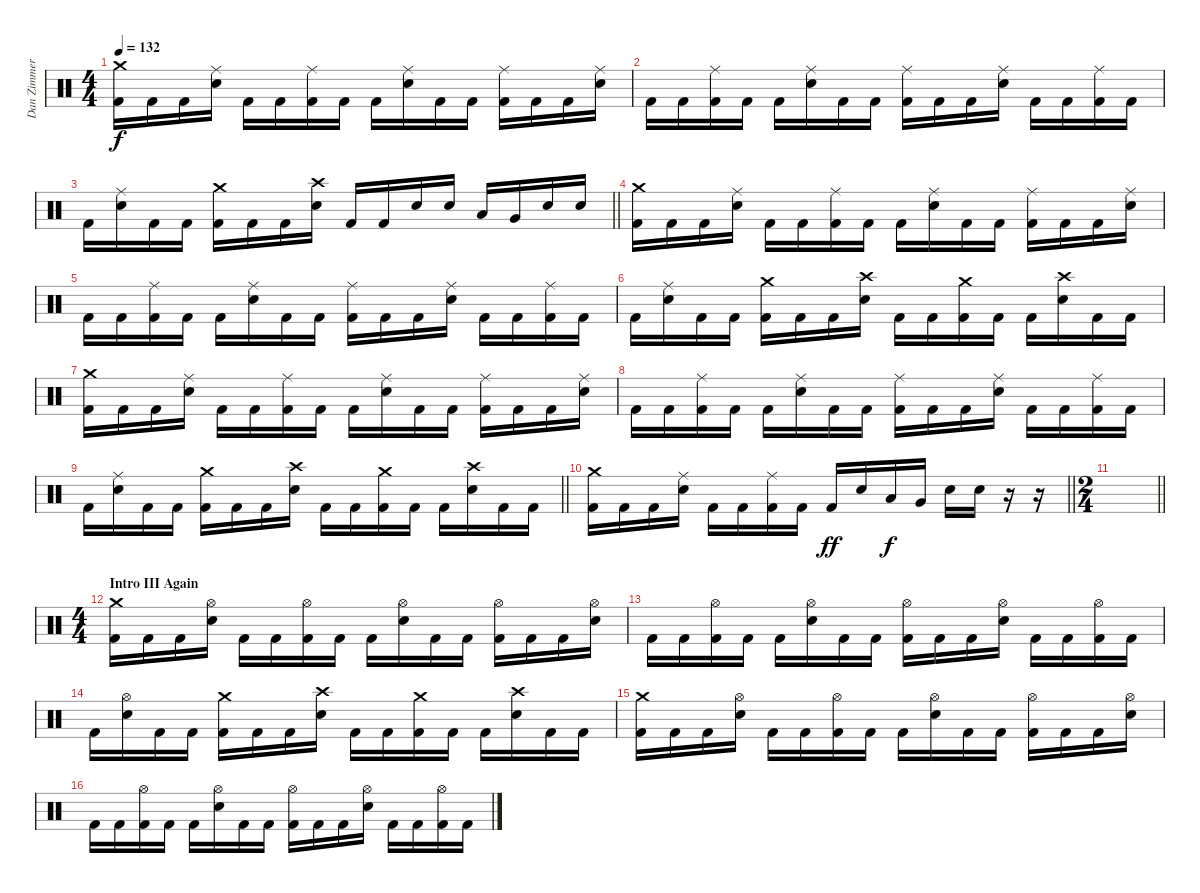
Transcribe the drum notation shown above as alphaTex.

\track ("Dan Zimmermann" "Dan Zimmer") {instrument percussion}
\staff {score}
\articulation defaults
\ts (4 4)
\tempo 132
\clef neutral
\ks c
("Crash medium (hit)" "Kick (hit) 2").16{dy f} "Kick (hit) 2".16 "Kick (hit) 2".16 ("Ride (middle)" "Electric Snare (hit)").16 "Kick (hit) 2".16 "Kick (hit) 2".16 ("Ride (middle)" "Kick (hit) 2").16 "Kick (hit) 2".16 "Kick (hit) 2".16 ("Ride (middle)" "Electric Snare (hit)").16 "Kick (hit) 2".16 "Kick (hit) 2".16 ("Ride (middle)" "Kick (hit) 2").16 "Kick (hit) 2".16 "Kick (hit) 2".16 ("Ride (middle)" "Electric Snare (hit)").16 |
"Kick (hit) 2".16 "Kick (hit) 2".16 ("Ride (middle)" "Kick (hit) 2").16 "Kick (hit) 2".16 "Kick (hit) 2".16 ("Ride (middle)" "Electric Snare (hit)").16 "Kick (hit) 2".16 "Kick (hit) 2".16 ("Ride (middle)" "Kick (hit) 2").16 "Kick (hit) 2".16 "Kick (hit) 2".16 ("Ride (middle)" "Electric Snare (hit)").16 "Kick (hit) 2".16 "Kick (hit) 2".16 ("Ride (middle)" "Kick (hit) 2").16 "Kick (hit) 2".16 |
\barLineRight lightlight "Kick (hit) 2".16
("Ride (middle)" "Electric Snare (hit)").16 "Kick (hit) 2".16 "Kick (hit) 2".16 ("Crash medium (hit)" "Kick (hit) 2").16 "Kick (hit) 2".16 "Kick (hit) 2".16 ("Crash high (hit)" "Electric Snare (hit)").16 "Kick (hit) 2".16 "Kick (hit) 2".16 "Electric Snare (hit)".16 "Electric Snare (hit)".16 "Low Tom (hit)".16 "Very Low Tom (hit)".16 "Electric Snare (hit)".16 "Electric Snare (hit)".16 |
("Crash medium (hit)" "Kick (hit) 2").16 "Kick (hit) 2".16 "Kick (hit) 2".16 ("Ride (middle)" "Electric Snare (hit)").16 "Kick (hit) 2".16 "Kick (hit) 2".16 ("Ride (middle)" "Kick (hit) 2").16 "Kick (hit) 2".16 "Kick (hit) 2".16 ("Ride (middle)" "Electric Snare (hit)").16 "Kick (hit) 2".16 "Kick (hit) 2".16 ("Ride (middle)" "Kick (hit) 2").16 "Kick (hit) 2".16 "Kick (hit) 2".16 ("Ride (middle)" "Electric Snare (hit)").16 |
"Kick (hit) 2".16 "Kick (hit) 2".16 ("Ride (middle)" "Kick (hit) 2").16 "Kick (hit) 2".16 "Kick (hit) 2".16 ("Ride (middle)" "Electric Snare (hit)").16 "Kick (hit) 2".16 "Kick (hit) 2".16 ("Ride (middle)" "Kick (hit) 2").16 "Kick (hit) 2".16 "Kick (hit) 2".16 ("Ride (middle)" "Electric Snare (hit)").16 "Kick (hit) 2".16 "Kick (hit) 2".16 ("Ride (middle)" "Kick (hit) 2").16 "Kick (hit) 2".16 |
"Kick (hit) 2".16 ("Ride (middle)" "Electric Snare (hit)").16 "Kick (hit) 2".16 "Kick (hit) 2".16 ("Crash medium (hit)" "Kick (hit) 2").16 "Kick (hit) 2".16 "Kick (hit) 2".16 ("Crash high (hit)" "Electric Snare (hit)").16 "Kick (hit) 2".16 "Kick (hit) 2".16 ("Crash medium (hit)" "Kick (hit) 2").16 "Kick (hit) 2".16 "Kick (hit) 2".16 ("Crash high (hit)" "Electric Snare (hit)").16 "Kick (hit) 2".16 "Kick (hit) 2".16 |
("Crash medium (hit)" "Kick (hit) 2").16 "Kick (hit) 2".16 "Kick (hit) 2".16 ("Ride (middle)" "Electric Snare (hit)").16 "Kick (hit) 2".16 "Kick (hit) 2".16 ("Ride (middle)" "Kick (hit) 2").16 "Kick (hit) 2".16 "Kick (hit) 2".16 ("Ride (middle)" "Electric Snare (hit)").16 "Kick (hit) 2".16 "Kick (hit) 2".16 ("Ride (middle)" "Kick (hit) 2").16 "Kick (hit) 2".16 "Kick (hit) 2".16 ("Ride (middle)" "Electric Snare (hit)").16 |
"Kick (hit) 2".16 "Kick (hit) 2".16 ("Ride (middle)" "Kick (hit) 2").16 "Kick (hit) 2".16 "Kick (hit) 2".16 ("Ride (middle)" "Electric Snare (hit)").16 "Kick (hit) 2".16 "Kick (hit) 2".16 ("Ride (middle)" "Kick (hit) 2").16 "Kick (hit) 2".16 "Kick (hit) 2".16 ("Ride (middle)" "Electric Snare (hit)").16 "Kick (hit) 2".16 "Kick (hit) 2".16 ("Ride (middle)" "Kick (hit) 2").16 "Kick (hit) 2".16 |
\barLineRight lightlight "Kick (hit) 2".16
("Ride (middle)" "Electric Snare (hit)").16 "Kick (hit) 2".16 "Kick (hit) 2".16 ("Crash medium (hit)" "Kick (hit) 2").16 "Kick (hit) 2".16 "Kick (hit) 2".16 ("Crash high (hit)" "Electric Snare (hit)").16 "Kick (hit) 2".16 "Kick (hit) 2".16 ("Crash medium (hit)" "Kick (hit) 2").16 "Kick (hit) 2".16 "Kick (hit) 2".16 ("Crash high (hit)" "Electric Snare (hit)").16 "Kick (hit) 2".16 "Kick (hit) 2".16 |
\barLineRight lightlight
("Crash medium (hit)" "Kick (hit) 2").16 "Kick (hit) 2".16 "Kick (hit) 2".16 ("Ride (middle)" "Electric Snare (hit)").16 "Kick (hit) 2".16 "Kick (hit) 2".16 ("Ride (middle)" "Kick (hit) 2").16 "Kick (hit) 2".16 "Kick (hit) 2".16{dy ff} "Electric Snare (hit)".16 "Low Tom (hit)".16{dy f} "Very Low Tom (hit)".16 "Electric Snare (hit)".16 "Electric Snare (hit)".16 r.16 r.16 |
\ts (2 4)
\barLineRight lightlight
|
\ts (4 4)
\section ("" "Intro III Again")
("Crash medium (hit)" "Kick (hit) 2").16 "Kick (hit) 2".16 "Kick (hit) 2".16 ("Hi-Hat (open)" "Electric Snare (hit)").16 "Kick (hit) 2".16 "Kick (hit) 2".16 ("Hi-Hat (open)" "Kick (hit) 2").16 "Kick (hit) 2".16 "Kick (hit) 2".16 ("Hi-Hat (open)" "Electric Snare (hit)").16 "Kick (hit) 2".16 "Kick (hit) 2".16 ("Hi-Hat (open)" "Kick (hit) 2").16 "Kick (hit) 2".16 "Kick (hit) 2".16 ("Hi-Hat (open)" "Electric Snare (hit)").16 |
"Kick (hit) 2".16 "Kick (hit) 2".16 ("Hi-Hat (open)" "Kick (hit) 2").16 "Kick (hit) 2".16 "Kick (hit) 2".16 ("Hi-Hat (open)" "Electric Snare (hit)").16 "Kick (hit) 2".16 "Kick (hit) 2".16 ("Hi-Hat (open)" "Kick (hit) 2").16 "Kick (hit) 2".16 "Kick (hit) 2".16 ("Hi-Hat (open)" "Electric Snare (hit)").16 "Kick (hit) 2".16 "Kick (hit) 2".16 ("Hi-Hat (open)" "Kick (hit) 2").16 "Kick (hit) 2".16 |
"Kick (hit) 2".16 ("Hi-Hat (open)" "Electric Snare (hit)").16 "Kick (hit) 2".16 "Kick (hit) 2".16 ("Crash medium (hit)" "Kick (hit) 2").16 "Kick (hit) 2".16 "Kick (hit) 2".16 ("Crash high (hit)" "Electric Snare (hit)").16 "Kick (hit) 2".16 "Kick (hit) 2".16 ("Crash medium (hit)" "Kick (hit) 2").16 "Kick (hit) 2".16 "Kick (hit) 2".16 ("Crash high (hit)" "Electric Snare (hit)").16 "Kick (hit) 2".16 "Kick (hit) 2".16 |
("Crash medium (hit)" "Kick (hit) 2").16 "Kick (hit) 2".16 "Kick (hit) 2".16 ("Hi-Hat (open)" "Electric Snare (hit)").16 "Kick (hit) 2".16 "Kick (hit) 2".16 ("Hi-Hat (open)" "Kick (hit) 2").16 "Kick (hit) 2".16 "Kick (hit) 2".16 ("Hi-Hat (open)" "Electric Snare (hit)").16 "Kick (hit) 2".16 "Kick (hit) 2".16 ("Hi-Hat (open)" "Kick (hit) 2").16 "Kick (hit) 2".16 "Kick (hit) 2".16 ("Hi-Hat (open)" "Electric Snare (hit)").16 |
"Kick (hit) 2".16 "Kick (hit) 2".16 ("Hi-Hat (open)" "Kick (hit) 2").16 "Kick (hit) 2".16 "Kick (hit) 2".16 ("Hi-Hat (open)" "Electric Snare (hit)").16 "Kick (hit) 2".16 "Kick (hit) 2".16 ("Hi-Hat (open)" "Kick (hit) 2").16 "Kick (hit) 2".16 "Kick (hit) 2".16 ("Hi-Hat (open)" "Electric Snare (hit)").16 "Kick (hit) 2".16 "Kick (hit) 2".16 ("Hi-Hat (open)" "Kick (hit) 2").16 "Kick (hit) 2".16
